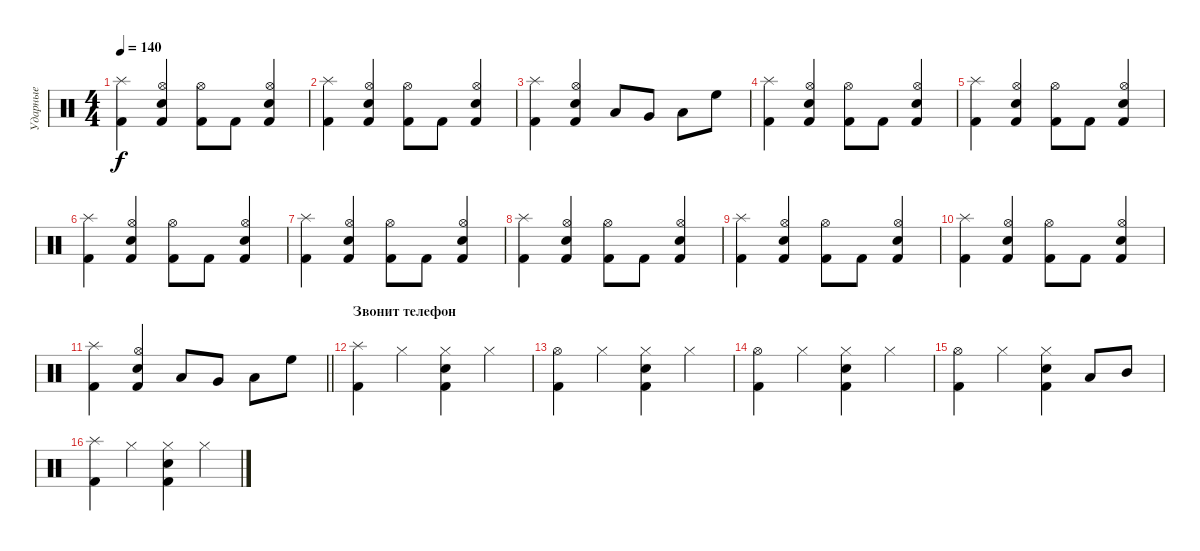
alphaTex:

\track ("Ударные" "Ударные") {instrument percussion}
\staff {score}
\articulation defaults
\ts (4 4)
\tempo 140
\clef neutral
\ks c
("Splash (hit)" "Kick (hit) 2").4{dy f} ("Hi-Hat (open)" "Electric Snare (hit)" "Kick (hit) 2").4 ("Hi-Hat (open)" "Kick (hit) 2").8 "Kick (hit) 2".8 ("Hi-Hat (open)" "Electric Snare (hit)" "Kick (hit) 2").4 |
("Splash (hit)" "Kick (hit) 2").4 ("Hi-Hat (open)" "Electric Snare (hit)" "Kick (hit) 2").4 ("Hi-Hat (open)" "Kick (hit) 2").8 "Kick (hit) 2".8 ("Hi-Hat (open)" "Electric Snare (hit)" "Kick (hit) 2").4 |
("Splash (hit)" "Kick (hit) 2").4 ("Hi-Hat (open)" "Electric Snare (hit)" "Kick (hit) 2").4 "Low Floor Tom (hit)".8 "Very Low Tom (hit)".8 "Low Tom (hit)".8 "High Floor Tom (hit)".8 |
("Splash (hit)" "Kick (hit) 2").4 ("Hi-Hat (open)" "Electric Snare (hit)" "Kick (hit) 2").4 ("Hi-Hat (open)" "Kick (hit) 2").8 "Kick (hit) 2".8 ("Hi-Hat (open)" "Electric Snare (hit)" "Kick (hit) 2").4 |
("Splash (hit)" "Kick (hit) 2").4 ("Hi-Hat (open)" "Electric Snare (hit)" "Kick (hit) 2").4 ("Hi-Hat (open)" "Kick (hit) 2").8 "Kick (hit) 2".8 ("Hi-Hat (open)" "Electric Snare (hit)" "Kick (hit) 2").4 |
("Splash (hit)" "Kick (hit) 2").4 ("Hi-Hat (open)" "Electric Snare (hit)" "Kick (hit) 2").4 ("Hi-Hat (open)" "Kick (hit) 2").8 "Kick (hit) 2".8 ("Hi-Hat (open)" "Electric Snare (hit)" "Kick (hit) 2").4 |
("Splash (hit)" "Kick (hit) 2").4 ("Hi-Hat (open)" "Electric Snare (hit)" "Kick (hit) 2").4 ("Hi-Hat (open)" "Kick (hit) 2").8 "Kick (hit) 2".8 ("Hi-Hat (open)" "Electric Snare (hit)" "Kick (hit) 2").4 |
("Splash (hit)" "Kick (hit) 2").4 ("Hi-Hat (open)" "Electric Snare (hit)" "Kick (hit) 2").4 ("Hi-Hat (open)" "Kick (hit) 2").8 "Kick (hit) 2".8 ("Hi-Hat (open)" "Electric Snare (hit)" "Kick (hit) 2").4 |
("Splash (hit)" "Kick (hit) 2").4 ("Hi-Hat (open)" "Electric Snare (hit)" "Kick (hit) 2").4 ("Hi-Hat (open)" "Kick (hit) 2").8 "Kick (hit) 2".8 ("Hi-Hat (open)" "Electric Snare (hit)" "Kick (hit) 2").4 |
("Splash (hit)" "Kick (hit) 2").4 ("Hi-Hat (open)" "Electric Snare (hit)" "Kick (hit) 2").4 ("Hi-Hat (open)" "Kick (hit) 2").8 "Kick (hit) 2".8 ("Hi-Hat (open)" "Electric Snare (hit)" "Kick (hit) 2").4 |
\barLineRight lightlight
("Splash (hit)" "Kick (hit) 2").4 ("Hi-Hat (open)" "Electric Snare (hit)" "Kick (hit) 2").4 "Low Floor Tom (hit)".8 "Very Low Tom (hit)".8 "Low Tom (hit)".8 "High Floor Tom (hit)".8 |
\section ("" "Звонит телефон")
("Splash (hit)" "Kick (hit) 2").4 "Hi-Hat (closed)".4 ("Hi-Hat (closed)" "Electric Snare (hit)" "Kick (hit) 2").4 "Hi-Hat (closed)".4 |
("Hi-Hat (open)" "Kick (hit) 2").4 "Hi-Hat (closed)".4 ("Hi-Hat (closed)" "Electric Snare (hit)" "Kick (hit) 2").4 "Hi-Hat (closed)".4 |
("Hi-Hat (open)" "Kick (hit) 2").4 "Hi-Hat (closed)".4 ("Hi-Hat (closed)" "Electric Snare (hit)" "Kick (hit) 2").4 "Hi-Hat (closed)".4 |
("Hi-Hat (open)" "Kick (hit) 2").4 "Hi-Hat (closed)".4 ("Hi-Hat (closed)" "Electric Snare (hit)" "Kick (hit) 2").4 "Low Tom (hit)".8 "Mid Tom (hit)".8 |
("Splash (hit)" "Kick (hit) 2").4 "Hi-Hat (closed)".4 ("Hi-Hat (closed)" "Electric Snare (hit)" "Kick (hit) 2").4 "Hi-Hat (closed)".4
